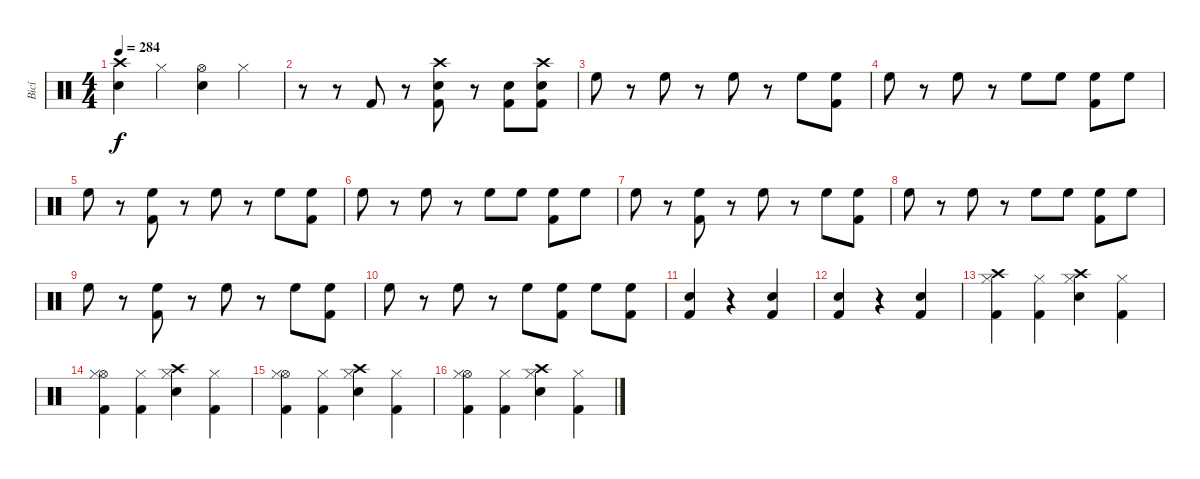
\track ("Bicí" "Bicí") {instrument percussion}
\staff {score}
\articulation defaults
\ts (4 4)
\tempo 284
\clef neutral
\ks c
("Crash high (hit)" "Electric Snare (hit)").4{dy f} "Hi-Hat (closed)".4 ("Hi-Hat (open)" "Electric Snare (hit)").4 "Hi-Hat (closed)".4 |
r.8 r.8 "Kick (hit) 2".8 r.8 ("Crash high (hit)" "Electric Snare (hit)" "Kick (hit) 2").8 r.8 ("Electric Snare (hit)" "Kick (hit) 2").8 ("Crash high (hit)" "Electric Snare (hit)" "Kick (hit) 2").8 |
"High Floor Tom (hit)".8 r.8 "High Floor Tom (hit)".8 r.8 "High Floor Tom (hit)".8 r.8 "High Floor Tom (hit)".8 ("Kick (hit) 2" "High Floor Tom (hit)").8 |
"High Floor Tom (hit)".8 r.8 "High Floor Tom (hit)".8 r.8 "High Floor Tom (hit)".8 "High Floor Tom (hit)".8 ("Kick (hit) 2" "High Floor Tom (hit)").8 "High Floor Tom (hit)".8 |
"High Floor Tom (hit)".8 r.8 ("Kick (hit) 2" "High Floor Tom (hit)").8 r.8 "High Floor Tom (hit)".8 r.8 "High Floor Tom (hit)".8 ("Kick (hit) 2" "High Floor Tom (hit)").8 |
"High Floor Tom (hit)".8 r.8 "High Floor Tom (hit)".8 r.8 "High Floor Tom (hit)".8 "High Floor Tom (hit)".8 ("Kick (hit) 2" "High Floor Tom (hit)").8 "High Floor Tom (hit)".8 |
"High Floor Tom (hit)".8 r.8 ("Kick (hit) 2" "High Floor Tom (hit)").8 r.8 "High Floor Tom (hit)".8 r.8 "High Floor Tom (hit)".8 ("Kick (hit) 2" "High Floor Tom (hit)").8 |
"High Floor Tom (hit)".8 r.8 "High Floor Tom (hit)".8 r.8 "High Floor Tom (hit)".8 "High Floor Tom (hit)".8 ("Kick (hit) 2" "High Floor Tom (hit)").8 "High Floor Tom (hit)".8 |
"High Floor Tom (hit)".8 r.8 ("Kick (hit) 2" "High Floor Tom (hit)").8 r.8 "High Floor Tom (hit)".8 r.8 "High Floor Tom (hit)".8 ("Kick (hit) 2" "High Floor Tom (hit)").8 |
"High Floor Tom (hit)".8 r.8 "High Floor Tom (hit)".8 r.8 "High Floor Tom (hit)".8 ("Kick (hit) 2" "High Floor Tom (hit)").8 "High Floor Tom (hit)".8 ("Kick (hit) 2" "High Floor Tom (hit)").8 |
("Electric Snare (hit)" "Kick (hit) 2").4 r.4 ("Electric Snare (hit)" "Kick (hit) 2").4 |
("Electric Snare (hit)" "Kick (hit) 2").4 r.4 ("Electric Snare (hit)" "Kick (hit) 2").4 |
("Crash high (hit)" "Hi-Hat (closed)" "Kick (hit) 2").4 ("Hi-Hat (closed)" "Kick (hit) 2").4 ("Crash high (hit)" "Hi-Hat (closed)" "Electric Snare (hit)").4 ("Hi-Hat (closed)" "Kick (hit) 2").4 |
("Hi-Hat (open)" "Hi-Hat (closed)" "Kick (hit) 2").4 ("Hi-Hat (closed)" "Kick (hit) 2").4 ("Crash high (hit)" "Hi-Hat (closed)" "Electric Snare (hit)").4 ("Hi-Hat (closed)" "Kick (hit) 2").4 |
("Hi-Hat (open)" "Hi-Hat (closed)" "Kick (hit) 2").4 ("Hi-Hat (closed)" "Kick (hit) 2").4 ("Crash high (hit)" "Hi-Hat (closed)" "Electric Snare (hit)").4 ("Hi-Hat (closed)" "Kick (hit) 2").4 |
("Hi-Hat (open)" "Hi-Hat (closed)" "Kick (hit) 2").4 ("Hi-Hat (closed)" "Kick (hit) 2").4 ("Crash high (hit)" "Hi-Hat (closed)" "Electric Snare (hit)").4 ("Hi-Hat (closed)" "Kick (hit) 2").4
